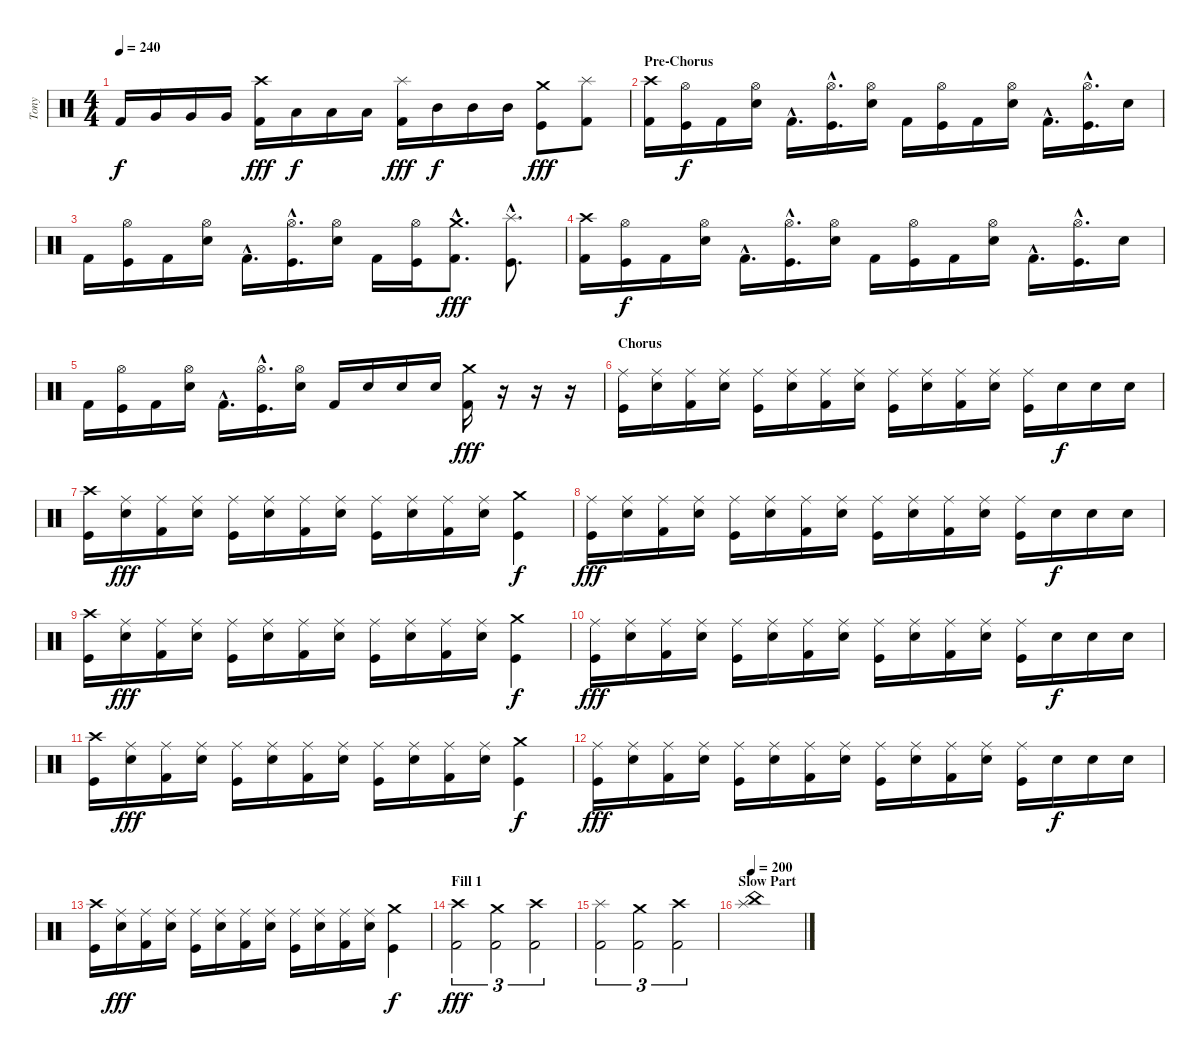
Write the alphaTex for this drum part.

\track ("Tony" "Tony") {instrument percussion}
\staff {score}
\articulation defaults
\ts (4 4)
\tempo 240
\clef neutral
\ks c "Kick (hit) 2".16{dy f} "Very Low Tom (hit)".16 "Very Low Tom (hit)".16 "Very Low Tom (hit)".16
("Kick (hit) 2" "Crash high (hit)").16{dy fff} "Low Tom (hit)".16{dy f} "Low Tom (hit)".16 "Low Tom (hit)".16 ("Kick (hit) 2" "Splash (hit)").16{dy fff} "Mid Tom (hit)".16{dy f} "Mid Tom (hit)".16 "Mid Tom (hit)".16 ("Kick (hit)" "Crash medium (hit)").8{dy fff} ("Kick (hit) 2" "Splash (hit)").8 |
\section ("" "Pre-Chorus")
("Kick (hit) 2" "Crash high (hit)").16 ("Kick (hit)" "Hi-Hat (open)").16{dy f} "Kick (hit) 2".16 ("Snare (hit) 2" "Hi-Hat (open)").16 "Kick (hit) 2"{hac}.16{d} ("Kick (hit)"{hac} "Hi-Hat (open)"{hac}).16{d} ("Snare (hit) 2" "Hi-Hat (open)").16 "Kick (hit) 2".16 ("Kick (hit)" "Hi-Hat (open)").16 "Kick (hit) 2".16 ("Snare (hit) 2" "Hi-Hat (open)").16 "Kick (hit) 2"{hac}.16{d} ("Kick (hit)"{hac} "Hi-Hat (open)"{hac}).16{d} "Snare (hit) 2".16 |
"Kick (hit) 2".16 ("Kick (hit)" "Hi-Hat (open)").16 "Kick (hit) 2".16 ("Snare (hit) 2" "Hi-Hat (open)").16 "Kick (hit) 2"{hac}.16{d} ("Kick (hit)"{hac} "Hi-Hat (open)"{hac}).16{d} ("Snare (hit) 2" "Hi-Hat (open)").16 "Kick (hit) 2".16 ("Kick (hit)" "Hi-Hat (open)").16 ("Kick (hit) 2"{hac} "Crash medium (hit)"{hac}).8{d dy fff} ("Kick (hit)"{hac} "Splash (hit)"{hac}).8{d} |
("Kick (hit) 2" "Crash high (hit)").16 ("Kick (hit)" "Hi-Hat (open)").16{dy f} "Kick (hit) 2".16 ("Snare (hit) 2" "Hi-Hat (open)").16 "Kick (hit) 2"{hac}.16{d} ("Kick (hit)"{hac} "Hi-Hat (open)"{hac}).16{d} ("Snare (hit) 2" "Hi-Hat (open)").16 "Kick (hit) 2".16 ("Kick (hit)" "Hi-Hat (open)").16 "Kick (hit) 2".16 ("Snare (hit) 2" "Hi-Hat (open)").16 "Kick (hit) 2"{hac}.16{d} ("Kick (hit)"{hac} "Hi-Hat (open)"{hac}).16{d} "Snare (hit) 2".16 |
"Kick (hit) 2".16 ("Kick (hit)" "Hi-Hat (open)").16 "Kick (hit) 2".16 ("Snare (hit) 2" "Hi-Hat (open)").16 "Kick (hit) 2"{hac}.16{d} ("Kick (hit)"{hac} "Hi-Hat (open)"{hac}).16{d} ("Snare (hit) 2" "Hi-Hat (open)").16 "Kick (hit) 2".16 "Snare (hit) 2".16 "Snare (hit) 2".16 "Snare (hit) 2".16 ("Kick (hit) 2" "Crash medium (hit)").16{dy fff} r.16 r.16 r.16 |
\section ("" "Chorus")
("Kick (hit)" "Ride (middle)").16 ("Snare (hit) 2" "Ride (middle)").16 ("Kick (hit) 2" "Ride (middle)").16 ("Snare (hit) 2" "Ride (middle)").16 ("Kick (hit)" "Ride (middle)").16 ("Snare (hit) 2" "Ride (middle)").16 ("Kick (hit) 2" "Ride (middle)").16 ("Snare (hit) 2" "Ride (middle)").16 ("Kick (hit)" "Ride (middle)").16 ("Snare (hit) 2" "Ride (middle)").16 ("Kick (hit) 2" "Ride (middle)").16 ("Snare (hit) 2" "Ride (middle)").16 ("Kick (hit)" "Ride (middle)").16 "Snare (hit) 2".16{dy f} "Snare (hit) 2".16 "Snare (hit) 2".16 |
("Kick (hit)" "Crash high (hit)").16 ("Snare (hit) 2" "Ride (middle)").16{dy fff} ("Kick (hit) 2" "Ride (middle)").16 ("Snare (hit) 2" "Ride (middle)").16 ("Kick (hit)" "Ride (middle)").16 ("Snare (hit) 2" "Ride (middle)").16 ("Kick (hit) 2" "Ride (middle)").16 ("Snare (hit) 2" "Ride (middle)").16 ("Kick (hit)" "Ride (middle)").16 ("Snare (hit) 2" "Ride (middle)").16 ("Kick (hit) 2" "Ride (middle)").16 ("Snare (hit) 2" "Ride (middle)").16 ("Kick (hit)" "Crash medium (hit)").4{dy f} |
("Kick (hit)" "Ride (middle)").16{dy fff} ("Snare (hit) 2" "Ride (middle)").16 ("Kick (hit) 2" "Ride (middle)").16 ("Snare (hit) 2" "Ride (middle)").16 ("Kick (hit)" "Ride (middle)").16 ("Snare (hit) 2" "Ride (middle)").16 ("Kick (hit) 2" "Ride (middle)").16 ("Snare (hit) 2" "Ride (middle)").16 ("Kick (hit)" "Ride (middle)").16 ("Snare (hit) 2" "Ride (middle)").16 ("Kick (hit) 2" "Ride (middle)").16 ("Snare (hit) 2" "Ride (middle)").16 ("Kick (hit)" "Ride (middle)").16 "Snare (hit) 2".16{dy f} "Snare (hit) 2".16 "Snare (hit) 2".16 |
("Kick (hit)" "Crash high (hit)").16 ("Snare (hit) 2" "Ride (middle)").16{dy fff} ("Kick (hit) 2" "Ride (middle)").16 ("Snare (hit) 2" "Ride (middle)").16 ("Kick (hit)" "Ride (middle)").16 ("Snare (hit) 2" "Ride (middle)").16 ("Kick (hit) 2" "Ride (middle)").16 ("Snare (hit) 2" "Ride (middle)").16 ("Kick (hit)" "Ride (middle)").16 ("Snare (hit) 2" "Ride (middle)").16 ("Kick (hit) 2" "Ride (middle)").16 ("Snare (hit) 2" "Ride (middle)").16 ("Kick (hit)" "Crash medium (hit)").4{dy f} |
("Kick (hit)" "Ride (middle)").16{dy fff} ("Snare (hit) 2" "Ride (middle)").16 ("Kick (hit) 2" "Ride (middle)").16 ("Snare (hit) 2" "Ride (middle)").16 ("Kick (hit)" "Ride (middle)").16 ("Snare (hit) 2" "Ride (middle)").16 ("Kick (hit) 2" "Ride (middle)").16 ("Snare (hit) 2" "Ride (middle)").16 ("Kick (hit)" "Ride (middle)").16 ("Snare (hit) 2" "Ride (middle)").16 ("Kick (hit) 2" "Ride (middle)").16 ("Snare (hit) 2" "Ride (middle)").16 ("Kick (hit)" "Ride (middle)").16 "Snare (hit) 2".16{dy f} "Snare (hit) 2".16 "Snare (hit) 2".16 |
("Kick (hit)" "Crash high (hit)").16 ("Snare (hit) 2" "Ride (middle)").16{dy fff} ("Kick (hit) 2" "Ride (middle)").16 ("Snare (hit) 2" "Ride (middle)").16 ("Kick (hit)" "Ride (middle)").16 ("Snare (hit) 2" "Ride (middle)").16 ("Kick (hit) 2" "Ride (middle)").16 ("Snare (hit) 2" "Ride (middle)").16 ("Kick (hit)" "Ride (middle)").16 ("Snare (hit) 2" "Ride (middle)").16 ("Kick (hit) 2" "Ride (middle)").16 ("Snare (hit) 2" "Ride (middle)").16 ("Kick (hit)" "Crash medium (hit)").4{dy f} |
("Kick (hit)" "Ride (middle)").16{dy fff} ("Snare (hit) 2" "Ride (middle)").16 ("Kick (hit) 2" "Ride (middle)").16 ("Snare (hit) 2" "Ride (middle)").16 ("Kick (hit)" "Ride (middle)").16 ("Snare (hit) 2" "Ride (middle)").16 ("Kick (hit) 2" "Ride (middle)").16 ("Snare (hit) 2" "Ride (middle)").16 ("Kick (hit)" "Ride (middle)").16 ("Snare (hit) 2" "Ride (middle)").16 ("Kick (hit) 2" "Ride (middle)").16 ("Snare (hit) 2" "Ride (middle)").16 ("Kick (hit)" "Ride (middle)").16 "Snare (hit) 2".16{dy f} "Snare (hit) 2".16 "Snare (hit) 2".16 |
("Kick (hit)" "Crash high (hit)").16 ("Snare (hit) 2" "Ride (middle)").16{dy fff} ("Kick (hit) 2" "Ride (middle)").16 ("Snare (hit) 2" "Ride (middle)").16 ("Kick (hit)" "Ride (middle)").16 ("Snare (hit) 2" "Ride (middle)").16 ("Kick (hit) 2" "Ride (middle)").16 ("Snare (hit) 2" "Ride (middle)").16 ("Kick (hit)" "Ride (middle)").16 ("Snare (hit) 2" "Ride (middle)").16 ("Kick (hit) 2" "Ride (middle)").16 ("Snare (hit) 2" "Ride (middle)").16 ("Kick (hit)" "Crash medium (hit)").4{dy f} |
\section ("" "Fill 1")
("Kick (hit) 2" "Crash high (hit)").2{tu (3 2) dy fff} ("Kick (hit) 2" "Crash medium (hit)").2{tu (3 2)} ("Kick (hit) 2" "Crash high (hit)").2{tu (3 2)} |
("Kick (hit) 2" "Splash (hit)").2{tu (3 2)} ("Kick (hit) 2" "Crash medium (hit)").2{tu (3 2)} ("Kick (hit) 2" "Crash high (hit)").2{tu (3 2)} |
\section ("" "Slow Part")
\tempo 200
("Splash (hit)" "China (hit)").1
